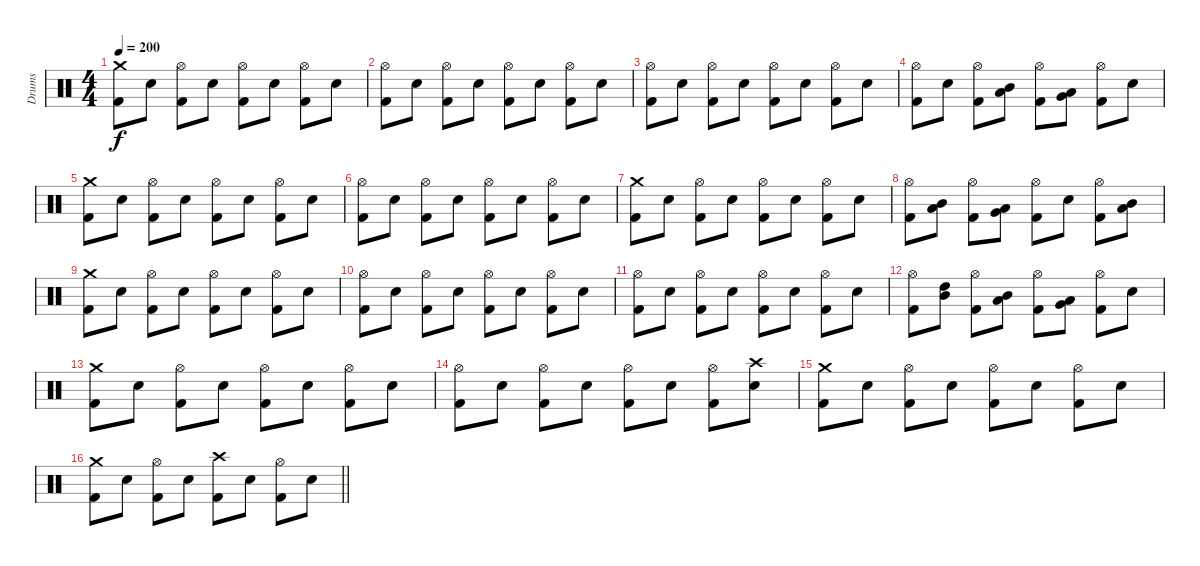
\track ("Drums" "Drums") {instrument percussion}
\staff {score}
\articulation defaults
\ts (4 4)
\tempo 200
\clef neutral
\ks c
("Crash medium (hit)" "Kick (hit) 2").8{dy f} "Electric Snare (hit)".8 ("Hi-Hat (open)" "Kick (hit) 2").8 "Electric Snare (hit)".8 ("Hi-Hat (open)" "Kick (hit) 2").8 "Electric Snare (hit)".8 ("Hi-Hat (open)" "Kick (hit) 2").8 "Electric Snare (hit)".8 |
("Hi-Hat (open)" "Kick (hit) 2").8 "Electric Snare (hit)".8 ("Hi-Hat (open)" "Kick (hit) 2").8 "Electric Snare (hit)".8 ("Hi-Hat (open)" "Kick (hit) 2").8 "Electric Snare (hit)".8 ("Hi-Hat (open)" "Kick (hit) 2").8 "Electric Snare (hit)".8 |
("Hi-Hat (open)" "Kick (hit) 2").8 "Electric Snare (hit)".8 ("Hi-Hat (open)" "Kick (hit) 2").8 "Electric Snare (hit)".8 ("Hi-Hat (open)" "Kick (hit) 2").8 "Electric Snare (hit)".8 ("Hi-Hat (open)" "Kick (hit) 2").8 "Electric Snare (hit)".8 |
("Hi-Hat (open)" "Kick (hit) 2").8 "Electric Snare (hit)".8 ("Hi-Hat (open)" "Kick (hit) 2").8 ("Low Tom (hit)" "Mid Tom (hit)").8 ("Hi-Hat (open)" "Kick (hit) 2").8 ("Very Low Tom (hit)" "Low Tom (hit)").8 ("Hi-Hat (open)" "Kick (hit) 2").8 "Electric Snare (hit)".8 |
("Crash medium (hit)" "Kick (hit) 2").8 "Electric Snare (hit)".8 ("Hi-Hat (open)" "Kick (hit) 2").8 "Electric Snare (hit)".8 ("Hi-Hat (open)" "Kick (hit) 2").8 "Electric Snare (hit)".8 ("Hi-Hat (open)" "Kick (hit) 2").8 "Electric Snare (hit)".8 |
("Hi-Hat (open)" "Kick (hit) 2").8 "Electric Snare (hit)".8 ("Hi-Hat (open)" "Kick (hit) 2").8 "Electric Snare (hit)".8 ("Hi-Hat (open)" "Kick (hit) 2").8 "Electric Snare (hit)".8 ("Hi-Hat (open)" "Kick (hit) 2").8 "Electric Snare (hit)".8 |
("Crash medium (hit)" "Kick (hit) 2").8 "Electric Snare (hit)".8 ("Hi-Hat (open)" "Kick (hit) 2").8 "Electric Snare (hit)".8 ("Hi-Hat (open)" "Kick (hit) 2").8 "Electric Snare (hit)".8 ("Hi-Hat (open)" "Kick (hit) 2").8 "Electric Snare (hit)".8 |
("Hi-Hat (open)" "Kick (hit) 2").8 ("Low Tom (hit)" "Mid Tom (hit)").8 ("Hi-Hat (open)" "Kick (hit) 2").8 ("Very Low Tom (hit)" "Low Tom (hit)").8 ("Hi-Hat (open)" "Kick (hit) 2").8 "Electric Snare (hit)".8 ("Hi-Hat (open)" "Kick (hit) 2").8 ("Low Tom (hit)" "Mid Tom (hit)").8 |
("Crash medium (hit)" "Kick (hit) 2").8 "Electric Snare (hit)".8 ("Hi-Hat (open)" "Kick (hit) 2").8 "Electric Snare (hit)".8 ("Hi-Hat (open)" "Kick (hit) 2").8 "Electric Snare (hit)".8 ("Hi-Hat (open)" "Kick (hit) 2").8 "Electric Snare (hit)".8 |
("Hi-Hat (open)" "Kick (hit) 2").8 "Electric Snare (hit)".8 ("Hi-Hat (open)" "Kick (hit) 2").8 "Electric Snare (hit)".8 ("Hi-Hat (open)" "Kick (hit) 2").8 "Electric Snare (hit)".8 ("Hi-Hat (open)" "Kick (hit) 2").8 "Electric Snare (hit)".8 |
("Hi-Hat (open)" "Kick (hit) 2").8 "Electric Snare (hit)".8 ("Hi-Hat (open)" "Kick (hit) 2").8 "Electric Snare (hit)".8 ("Hi-Hat (open)" "Kick (hit) 2").8 "Electric Snare (hit)".8 ("Hi-Hat (open)" "Kick (hit) 2").8 "Electric Snare (hit)".8 |
("Hi-Hat (open)" "Kick (hit) 2").8 ("Mid Tom (hit)" "High Tom (hit)").8 ("Hi-Hat (open)" "Kick (hit) 2").8 ("Low Tom (hit)" "Mid Tom (hit)").8 ("Hi-Hat (open)" "Kick (hit) 2").8 ("Very Low Tom (hit)" "Low Tom (hit)").8 ("Hi-Hat (open)" "Kick (hit) 2").8 "Electric Snare (hit)".8 |
("Crash medium (hit)" "Kick (hit) 2").8 "Electric Snare (hit)".8 ("Hi-Hat (open)" "Kick (hit) 2").8 "Electric Snare (hit)".8 ("Hi-Hat (open)" "Kick (hit) 2").8 "Electric Snare (hit)".8 ("Hi-Hat (open)" "Kick (hit) 2").8 "Electric Snare (hit)".8 |
("Hi-Hat (open)" "Kick (hit) 2").8 "Electric Snare (hit)".8 ("Hi-Hat (open)" "Kick (hit) 2").8 "Electric Snare (hit)".8 ("Hi-Hat (open)" "Kick (hit) 2").8 "Electric Snare (hit)".8 ("Hi-Hat (open)" "Kick (hit) 2").8 ("Crash high (hit)" "Electric Snare (hit)").8 |
("Crash medium (hit)" "Kick (hit) 2").8 "Electric Snare (hit)".8 ("Hi-Hat (open)" "Kick (hit) 2").8 "Electric Snare (hit)".8 ("Hi-Hat (open)" "Kick (hit) 2").8 "Electric Snare (hit)".8 ("Hi-Hat (open)" "Kick (hit) 2").8 "Electric Snare (hit)".8 |
\barLineRight lightlight
("Crash medium (hit)" "Kick (hit) 2").8 "Electric Snare (hit)".8 ("Hi-Hat (open)" "Kick (hit) 2").8 "Electric Snare (hit)".8 ("Crash high (hit)" "Kick (hit) 2").8 "Electric Snare (hit)".8 ("Hi-Hat (open)" "Kick (hit) 2").8 "Electric Snare (hit)".8
